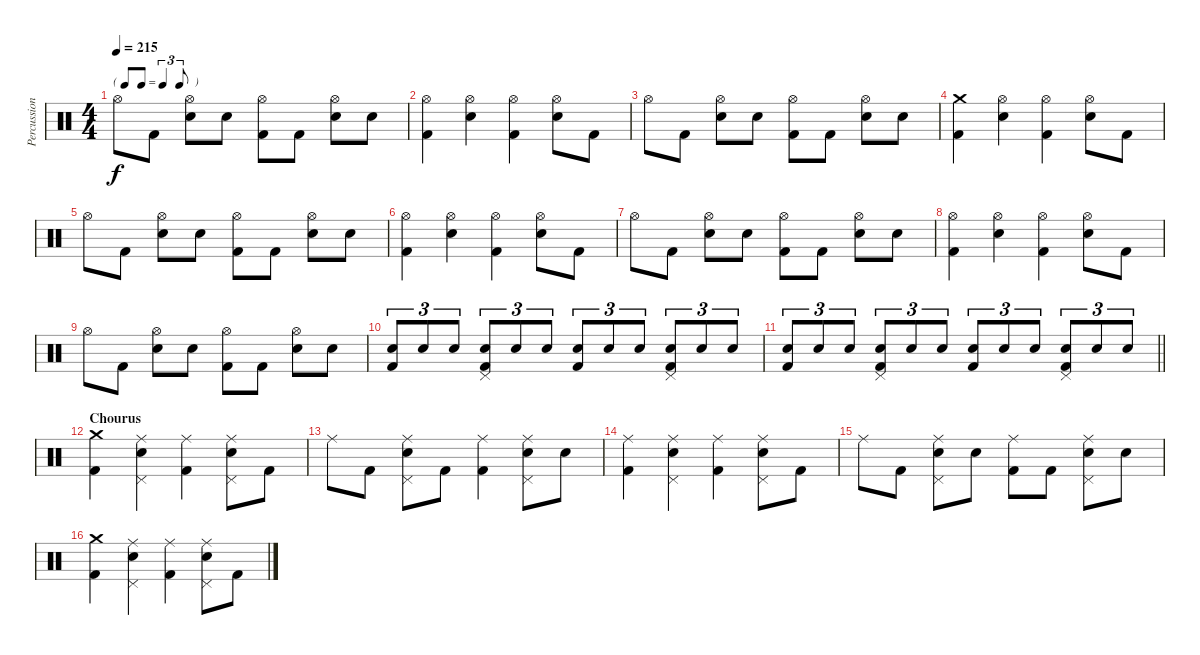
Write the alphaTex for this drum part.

\track ("Percussion" "Percussion") {instrument percussion}
\staff {score}
\articulation defaults
\ts (4 4)
\tf triplet8th
\tempo 215
\clef neutral
\ks c "Hi-Hat (open)".8{dy f} "Kick (hit) 2".8
("Hi-Hat (open)" "Snare (hit) 2").8 "Snare (hit) 2".8 ("Hi-Hat (open)" "Kick (hit) 2").8 "Kick (hit) 2".8 ("Hi-Hat (open)" "Snare (hit) 2").8 "Snare (hit) 2".8 |
("Hi-Hat (open)" "Kick (hit) 2").4 ("Hi-Hat (open)" "Snare (hit) 2").4 ("Hi-Hat (open)" "Kick (hit) 2").4 ("Hi-Hat (open)" "Snare (hit) 2").8 "Kick (hit) 2".8 |
"Hi-Hat (open)".8 "Kick (hit) 2".8 ("Hi-Hat (open)" "Snare (hit) 2").8 "Snare (hit) 2".8 ("Hi-Hat (open)" "Kick (hit) 2").8 "Kick (hit) 2".8 ("Hi-Hat (open)" "Snare (hit) 2").8 "Snare (hit) 2".8 |
("Crash medium (hit)" "Kick (hit) 2").4 ("Hi-Hat (open)" "Snare (hit) 2").4 ("Hi-Hat (open)" "Kick (hit) 2").4 ("Hi-Hat (open)" "Snare (hit) 2").8 "Kick (hit) 2".8 |
"Hi-Hat (open)".8 "Kick (hit) 2".8 ("Hi-Hat (open)" "Snare (hit) 2").8 "Snare (hit) 2".8 ("Hi-Hat (open)" "Kick (hit) 2").8 "Kick (hit) 2".8 ("Hi-Hat (open)" "Snare (hit) 2").8 "Snare (hit) 2".8 |
("Hi-Hat (open)" "Kick (hit) 2").4 ("Hi-Hat (open)" "Snare (hit) 2").4 ("Hi-Hat (open)" "Kick (hit) 2").4 ("Hi-Hat (open)" "Snare (hit) 2").8 "Kick (hit) 2".8 |
"Hi-Hat (open)".8 "Kick (hit) 2".8 ("Hi-Hat (open)" "Snare (hit) 2").8 "Snare (hit) 2".8 ("Hi-Hat (open)" "Kick (hit) 2").8 "Kick (hit) 2".8 ("Hi-Hat (open)" "Snare (hit) 2").8 "Snare (hit) 2".8 |
("Hi-Hat (open)" "Kick (hit) 2").4 ("Hi-Hat (open)" "Snare (hit) 2").4 ("Hi-Hat (open)" "Kick (hit) 2").4 ("Hi-Hat (open)" "Snare (hit) 2").8 "Kick (hit) 2".8 |
"Hi-Hat (open)".8 "Kick (hit) 2".8 ("Hi-Hat (open)" "Snare (hit) 2").8 "Snare (hit) 2".8 ("Hi-Hat (open)" "Kick (hit) 2").8 "Kick (hit) 2".8 ("Hi-Hat (open)" "Snare (hit) 2").8 "Snare (hit) 2".8 |
("Snare (hit) 2" "Kick (hit) 2").8{tu (3 2)} "Snare (hit) 2".8{tu (3 2)} "Snare (hit) 2".8{tu (3 2)} ("Snare (hit) 2" "Pedal Hi-Hat (hit)" "Kick (hit) 2").8{tu (3 2)} "Snare (hit) 2".8{tu (3 2)} "Snare (hit) 2".8{tu (3 2)} ("Snare (hit) 2" "Kick (hit) 2").8{tu (3 2)} "Snare (hit) 2".8{tu (3 2)} "Snare (hit) 2".8{tu (3 2)} ("Snare (hit) 2" "Pedal Hi-Hat (hit)" "Kick (hit) 2").8{tu (3 2)} "Snare (hit) 2".8{tu (3 2)} "Snare (hit) 2".8{tu (3 2)} |
\barLineRight lightlight
("Snare (hit) 2" "Kick (hit) 2").8{tu (3 2)} "Snare (hit) 2".8{tu (3 2)} "Snare (hit) 2".8{tu (3 2)} ("Snare (hit) 2" "Pedal Hi-Hat (hit)" "Kick (hit) 2").8{tu (3 2)} "Snare (hit) 2".8{tu (3 2)} "Snare (hit) 2".8{tu (3 2)} ("Snare (hit) 2" "Kick (hit) 2").8{tu (3 2)} "Snare (hit) 2".8{tu (3 2)} "Snare (hit) 2".8{tu (3 2)} ("Snare (hit) 2" "Pedal Hi-Hat (hit)" "Kick (hit) 2").8{tu (3 2)} "Snare (hit) 2".8{tu (3 2)} "Snare (hit) 2".8{tu (3 2)} |
\section ("" "Chourus")
("Crash medium (hit)" "Kick (hit) 2").4 ("Ride (middle)" "Snare (hit) 2" "Pedal Hi-Hat (hit)").4 ("Ride (middle)" "Kick (hit) 2").4 ("Ride (middle)" "Snare (hit) 2" "Pedal Hi-Hat (hit)").8 "Kick (hit) 2".8 |
"Ride (middle)".8 "Kick (hit) 2".8 ("Ride (middle)" "Snare (hit) 2" "Pedal Hi-Hat (hit)").8 "Kick (hit) 2".8 ("Ride (middle)" "Kick (hit) 2").4 ("Ride (middle)" "Snare (hit) 2" "Pedal Hi-Hat (hit)").8 "Snare (hit) 2".8 |
("Ride (middle)" "Kick (hit) 2").4 ("Ride (middle)" "Snare (hit) 2" "Pedal Hi-Hat (hit)").4 ("Ride (middle)" "Kick (hit) 2").4 ("Ride (middle)" "Snare (hit) 2" "Pedal Hi-Hat (hit)").8 "Kick (hit) 2".8 |
"Ride (middle)".8 "Kick (hit) 2".8 ("Ride (middle)" "Snare (hit) 2" "Pedal Hi-Hat (hit)").8 "Snare (hit) 2".8 ("Ride (middle)" "Kick (hit) 2").8 "Kick (hit) 2".8 ("Ride (middle)" "Snare (hit) 2" "Pedal Hi-Hat (hit)").8 "Snare (hit) 2".8 |
("Crash medium (hit)" "Kick (hit) 2").4 ("Ride (middle)" "Snare (hit) 2" "Pedal Hi-Hat (hit)").4 ("Ride (middle)" "Kick (hit) 2").4 ("Ride (middle)" "Snare (hit) 2" "Pedal Hi-Hat (hit)").8 "Kick (hit) 2".8
